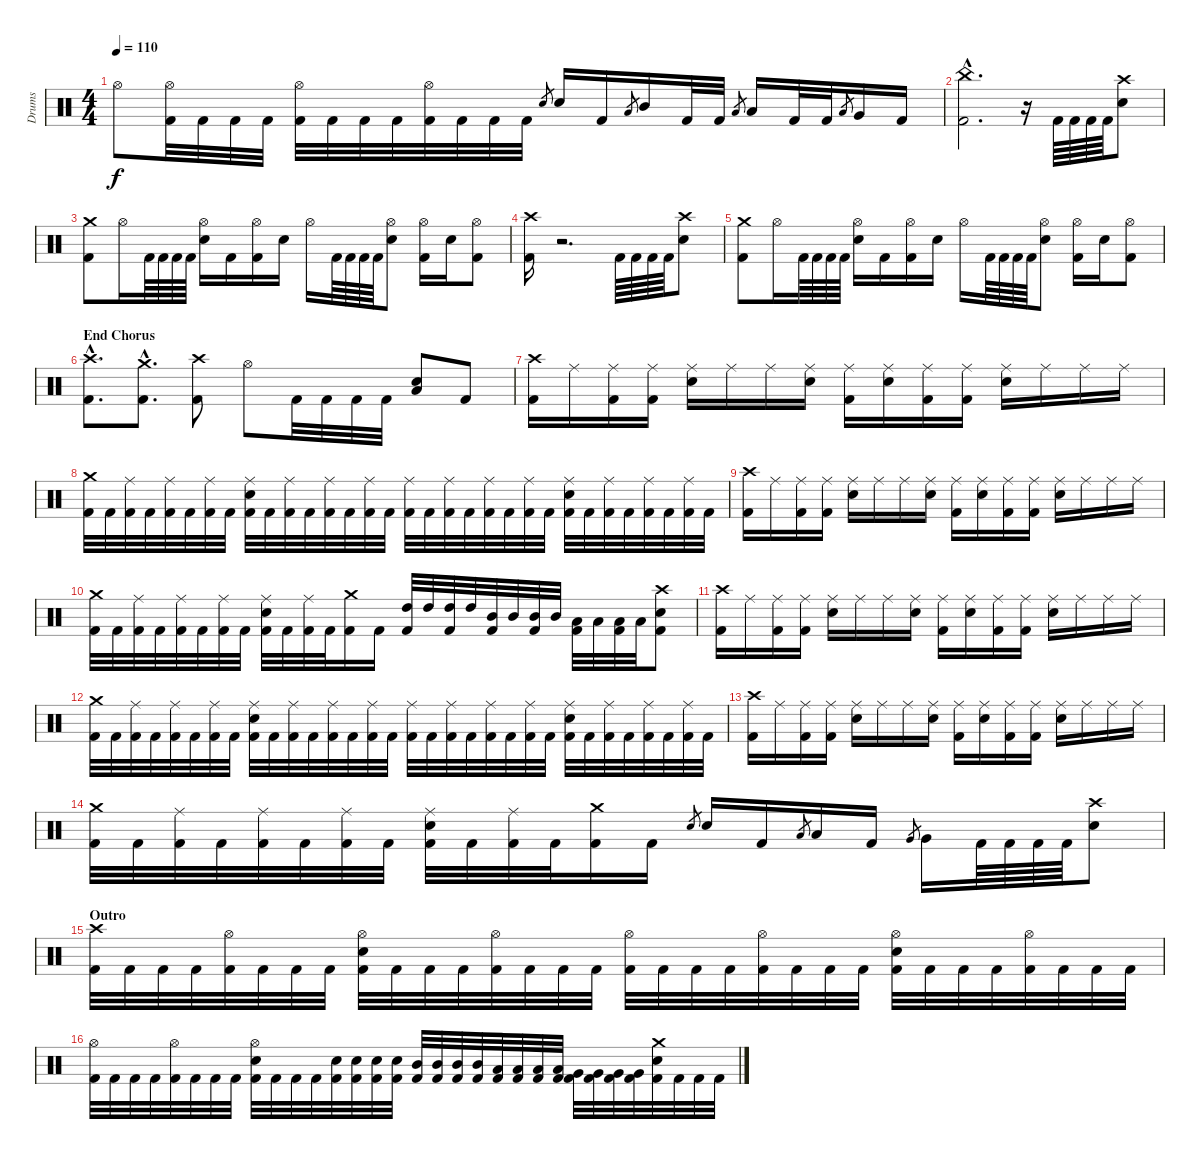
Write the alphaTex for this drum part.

\track ("Drums" "Drums") {instrument percussion}
\staff {score}
\articulation defaults
\ts (4 4)
\tempo 110
\clef neutral
\ks c "Hi-Hat (open)".8{dy f}
("Hi-Hat (open)" "Kick (hit) 2").32 "Kick (hit) 2".32 "Kick (hit) 2".32 "Kick (hit) 2".32 ("Hi-Hat (open)" "Kick (hit) 2").32 "Kick (hit) 2".32 "Kick (hit) 2".32 "Kick (hit) 2".32 ("Hi-Hat (open)" "Kick (hit) 2").32 "Kick (hit) 2".32 "Kick (hit) 2".32 "Kick (hit) 2".32 "Electric Snare (hit)".8{gr} "Electric Snare (hit)".16 "Kick (hit) 2".16 "Low Floor Tom (hit)".8{gr} "Mid Tom (hit)".16 "Kick (hit) 2".32 "Kick (hit) 2".32 "Low Floor Tom (hit)".8{gr} "Low Tom (hit)".16 "Kick (hit) 2".32 "Kick (hit) 2".32 "Low Floor Tom (hit)".8{gr} "Very Low Tom (hit)".16 "Kick (hit) 2".16 |
("China (hit)"{hac} "Kick (hit) 2"{hac}).2{d} r.16 "Kick (hit) 2".64 "Kick (hit) 2".64 "Kick (hit) 2".64 "Kick (hit) 2".64 ("Crash high (hit)" "Electric Snare (hit)").8 |
("Crash medium (hit)" "Kick (hit) 2").8 "Hi-Hat (open)".16 "Kick (hit) 2".64 "Kick (hit) 2".64 "Kick (hit) 2".64 "Kick (hit) 2".64 ("Hi-Hat (open)" "Electric Snare (hit)").16 "Kick (hit) 2".16 ("Hi-Hat (open)" "Kick (hit) 2").16 "Electric Snare (hit)".16 "Hi-Hat (open)".16 "Kick (hit) 2".64 "Kick (hit) 2".64 "Kick (hit) 2".64 "Kick (hit) 2".64 ("Hi-Hat (open)" "Electric Snare (hit)").8 ("Hi-Hat (open)" "Kick (hit) 2").16 "Electric Snare (hit)".16 ("Hi-Hat (open)" "Kick (hit) 2").8 |
("Crash high (hit)" "Kick (hit) 2").16 r.2{d volume 0} "Kick (hit) 2".64{volume 16} "Kick (hit) 2".64 "Kick (hit) 2".64 "Kick (hit) 2".64 ("Crash high (hit)" "Electric Snare (hit)").8 |
("Crash medium (hit)" "Kick (hit) 2").8 "Hi-Hat (open)".16 "Kick (hit) 2".64 "Kick (hit) 2".64 "Kick (hit) 2".64 "Kick (hit) 2".64 ("Hi-Hat (open)" "Electric Snare (hit)").16 "Kick (hit) 2".16 ("Hi-Hat (open)" "Kick (hit) 2").16 "Electric Snare (hit)".16 "Hi-Hat (open)".16 "Kick (hit) 2".64 "Kick (hit) 2".64 "Kick (hit) 2".64 "Kick (hit) 2".64 ("Hi-Hat (open)" "Electric Snare (hit)").8 ("Hi-Hat (open)" "Kick (hit) 2").16 "Electric Snare (hit)".16 ("Hi-Hat (open)" "Kick (hit) 2").8 |
\section ("" "End Chorus")
("Crash high (hit)"{hac} "Kick (hit) 2").8{d} ("Crash medium (hit)"{hac} "Kick (hit) 2").8{d} ("Crash high (hit)" "Kick (hit) 2").8 "Hi-Hat (open)".8 "Kick (hit) 2".32 "Kick (hit) 2".32 "Kick (hit) 2".32 "Kick (hit) 2".32 ("Low Floor Tom (hit)" "Electric Snare (hit)").8 "Kick (hit) 2".8 |
("Crash high (hit)" "Kick (hit) 2").16 "Ride (middle)".16 ("Ride (middle)" "Kick (hit) 2").16 ("Ride (middle)" "Kick (hit) 2").16 ("Ride (middle)" "Electric Snare (hit)").16 "Ride (middle)".16 "Ride (middle)".16 ("Ride (middle)" "Electric Snare (hit)").16 ("Ride (middle)" "Kick (hit) 2").16 ("Ride (middle)" "Electric Snare (hit)").16 ("Ride (middle)" "Kick (hit) 2").16 ("Ride (middle)" "Kick (hit) 2").16 ("Ride (middle)" "Electric Snare (hit)").16 "Ride (middle)".16 "Ride (middle)".16 "Ride (middle)".16 |
("Crash medium (hit)" "Kick (hit) 2").32 "Kick (hit) 2".32 ("Ride (middle)" "Kick (hit) 2").32 "Kick (hit) 2".32 ("Ride (middle)" "Kick (hit) 2").32 "Kick (hit) 2".32 ("Ride (middle)" "Kick (hit) 2").32 "Kick (hit) 2".32 ("Ride (middle)" "Electric Snare (hit)" "Kick (hit) 2").32 "Kick (hit) 2".32 ("Ride (middle)" "Kick (hit) 2").32 "Kick (hit) 2".32 ("Ride (middle)" "Kick (hit) 2").32 "Kick (hit) 2".32 ("Ride (middle)" "Kick (hit) 2").32 "Kick (hit) 2".32 ("Ride (middle)" "Kick (hit) 2").32 "Kick (hit) 2".32 ("Ride (middle)" "Kick (hit) 2").32 "Kick (hit) 2".32 ("Ride (middle)" "Kick (hit) 2").32 "Kick (hit) 2".32 ("Ride (middle)" "Kick (hit) 2").32 "Kick (hit) 2".32 ("Ride (middle)" "Electric Snare (hit)" "Kick (hit) 2").32 "Kick (hit) 2".32 ("Ride (middle)" "Kick (hit) 2").32 "Kick (hit) 2".32 ("Ride (middle)" "Kick (hit) 2").32 "Kick (hit) 2".32 ("Ride (middle)" "Kick (hit) 2").32 "Kick (hit) 2".32 |
("Crash high (hit)" "Kick (hit) 2").16 "Ride (middle)".16 ("Ride (middle)" "Kick (hit) 2").16 ("Ride (middle)" "Kick (hit) 2").16 ("Ride (middle)" "Electric Snare (hit)").16 "Ride (middle)".16 "Ride (middle)".16 ("Ride (middle)" "Electric Snare (hit)").16 ("Ride (middle)" "Kick (hit) 2").16 ("Ride (middle)" "Electric Snare (hit)").16 ("Ride (middle)" "Kick (hit) 2").16 ("Ride (middle)" "Kick (hit) 2").16 ("Ride (middle)" "Electric Snare (hit)").16 "Ride (middle)".16 "Ride (middle)".16 "Ride (middle)".16 |
("Crash medium (hit)" "Kick (hit) 2").32 "Kick (hit) 2".32 ("Ride (middle)" "Kick (hit) 2").32 "Kick (hit) 2".32 ("Ride (middle)" "Kick (hit) 2").32 "Kick (hit) 2".32 ("Ride (middle)" "Kick (hit) 2").32 "Kick (hit) 2".32 ("Ride (middle)" "Electric Snare (hit)" "Kick (hit) 2").32 "Kick (hit) 2".32 ("Ride (middle)" "Kick (hit) 2").32 "Kick (hit) 2".32 ("Crash medium (hit)" "Kick (hit) 2").16 "Kick (hit) 2".16 ("High Tom (hit)" "Kick (hit) 2").32 "High Tom (hit)".32 ("High Tom (hit)" "Kick (hit) 2").32 "High Tom (hit)".32 ("Mid Tom (hit)" "Kick (hit) 2").32 "Mid Tom (hit)".32 ("Mid Tom (hit)" "Kick (hit) 2").32 "Mid Tom (hit)".32 ("Low Tom (hit)" "Kick (hit) 2").32 "Low Tom (hit)".32 ("Low Tom (hit)" "Kick (hit) 2").32 "Low Tom (hit)".32 ("Crash high (hit)" "Electric Snare (hit)" "Kick (hit) 2").8 |
("Crash high (hit)" "Kick (hit) 2").16 "Ride (middle)".16 ("Ride (middle)" "Kick (hit) 2").16 ("Ride (middle)" "Kick (hit) 2").16 ("Ride (middle)" "Electric Snare (hit)").16 "Ride (middle)".16 "Ride (middle)".16 ("Ride (middle)" "Electric Snare (hit)").16 ("Ride (middle)" "Kick (hit) 2").16 ("Ride (middle)" "Electric Snare (hit)").16 ("Ride (middle)" "Kick (hit) 2").16 ("Ride (middle)" "Kick (hit) 2").16 ("Ride (middle)" "Electric Snare (hit)").16 "Ride (middle)".16 "Ride (middle)".16 "Ride (middle)".16 |
("Crash medium (hit)" "Kick (hit) 2").32 "Kick (hit) 2".32 ("Ride (middle)" "Kick (hit) 2").32 "Kick (hit) 2".32 ("Ride (middle)" "Kick (hit) 2").32 "Kick (hit) 2".32 ("Ride (middle)" "Kick (hit) 2").32 "Kick (hit) 2".32 ("Ride (middle)" "Electric Snare (hit)" "Kick (hit) 2").32 "Kick (hit) 2".32 ("Ride (middle)" "Kick (hit) 2").32 "Kick (hit) 2".32 ("Ride (middle)" "Kick (hit) 2").32 "Kick (hit) 2".32 ("Ride (middle)" "Kick (hit) 2").32 "Kick (hit) 2".32 ("Ride (middle)" "Kick (hit) 2").32 "Kick (hit) 2".32 ("Ride (middle)" "Kick (hit) 2").32 "Kick (hit) 2".32 ("Ride (middle)" "Kick (hit) 2").32 "Kick (hit) 2".32 ("Ride (middle)" "Kick (hit) 2").32 "Kick (hit) 2".32 ("Ride (middle)" "Electric Snare (hit)" "Kick (hit) 2").32 "Kick (hit) 2".32 ("Ride (middle)" "Kick (hit) 2").32 "Kick (hit) 2".32 ("Ride (middle)" "Kick (hit) 2").32 "Kick (hit) 2".32 ("Ride (middle)" "Kick (hit) 2").32 "Kick (hit) 2".32 |
("Crash high (hit)" "Kick (hit) 2").16 "Ride (middle)".16 ("Ride (middle)" "Kick (hit) 2").16 ("Ride (middle)" "Kick (hit) 2").16 ("Ride (middle)" "Electric Snare (hit)").16 "Ride (middle)".16 "Ride (middle)".16 ("Ride (middle)" "Electric Snare (hit)").16 ("Ride (middle)" "Kick (hit) 2").16 ("Ride (middle)" "Electric Snare (hit)").16 ("Ride (middle)" "Kick (hit) 2").16 ("Ride (middle)" "Kick (hit) 2").16 ("Ride (middle)" "Electric Snare (hit)").16 "Ride (middle)".16 "Ride (middle)".16 "Ride (middle)".16 |
("Crash medium (hit)" "Kick (hit) 2").32 "Kick (hit) 2".32 ("Ride (middle)" "Kick (hit) 2").32 "Kick (hit) 2".32 ("Ride (middle)" "Kick (hit) 2").32 "Kick (hit) 2".32 ("Ride (middle)" "Kick (hit) 2").32 "Kick (hit) 2".32 ("Ride (middle)" "Electric Snare (hit)" "Kick (hit) 2").32 "Kick (hit) 2".32 ("Ride (middle)" "Kick (hit) 2").32 "Kick (hit) 2".32 ("Crash medium (hit)" "Kick (hit) 2").16 "Kick (hit) 2".16 "Electric Snare (hit)".8{gr} "Electric Snare (hit)".16 "Kick (hit) 2".16 "Low Tom (hit)".8{gr} "Low Tom (hit)".16 "Kick (hit) 2".16 "Very Low Tom (hit)".8{gr} "Very Low Tom (hit)".16 "Kick (hit) 2".64 "Kick (hit) 2".64 "Kick (hit) 2".64 "Kick (hit) 2".64 ("Crash high (hit)" "Electric Snare (hit)").8 |
\section ("" "Outro")
("Crash high (hit)" "Kick (hit) 2").32 "Kick (hit) 2".32 "Kick (hit) 2".32 "Kick (hit) 2".32 ("Hi-Hat (open)" "Kick (hit) 2").32 "Kick (hit) 2".32 "Kick (hit) 2".32 "Kick (hit) 2".32 ("Hi-Hat (open)" "Electric Snare (hit)" "Kick (hit) 2").32 "Kick (hit) 2".32 "Kick (hit) 2".32 "Kick (hit) 2".32 ("Hi-Hat (open)" "Kick (hit) 2").32 "Kick (hit) 2".32 "Kick (hit) 2".32 "Kick (hit) 2".32 ("Hi-Hat (open)" "Kick (hit) 2").32 "Kick (hit) 2".32 "Kick (hit) 2".32 "Kick (hit) 2".32 ("Hi-Hat (open)" "Kick (hit) 2").32 "Kick (hit) 2".32 "Kick (hit) 2".32 "Kick (hit) 2".32 ("Hi-Hat (open)" "Electric Snare (hit)" "Kick (hit) 2").32 "Kick (hit) 2".32 "Kick (hit) 2".32 "Kick (hit) 2".32 ("Hi-Hat (open)" "Kick (hit) 2").32 "Kick (hit) 2".32 "Kick (hit) 2".32 "Kick (hit) 2".32 |
("Hi-Hat (open)" "Kick (hit) 2").32 "Kick (hit) 2".32 "Kick (hit) 2".32 "Kick (hit) 2".32 ("Hi-Hat (open)" "Kick (hit) 2").32 "Kick (hit) 2".32 "Kick (hit) 2".32 "Kick (hit) 2".32 ("Hi-Hat (open)" "Electric Snare (hit)" "Kick (hit) 2").32 "Kick (hit) 2".32 "Kick (hit) 2".32 "Kick (hit) 2".32 ("Electric Snare (hit)" "Kick (hit) 2").32 ("Electric Snare (hit)" "Kick (hit) 2").32 ("Electric Snare (hit)" "Kick (hit) 2").32 ("Electric Snare (hit)" "Kick (hit) 2").32 ("Mid Tom (hit)" "Kick (hit) 2").32 ("Mid Tom (hit)" "Kick (hit) 2").32 ("Mid Tom (hit)" "Kick (hit) 2").32 ("Mid Tom (hit)" "Kick (hit) 2").32 ("Low Tom (hit)" "Kick (hit) 2").32 ("Low Tom (hit)" "Kick (hit) 2").32 ("Low Tom (hit)" "Kick (hit) 2").32 ("Low Tom (hit)" "Kick (hit) 2").32 ("Very Low Tom (hit)" "Kick (hit) 2").32 ("Very Low Tom (hit)" "Kick (hit) 2").32 ("Very Low Tom (hit)" "Kick (hit) 2").32 ("Very Low Tom (hit)" "Kick (hit) 2").32 ("Crash medium (hit)" "Electric Snare (hit)" "Kick (hit) 2").32 "Kick (hit) 2".32 "Kick (hit) 2".32 "Kick (hit) 2".32
